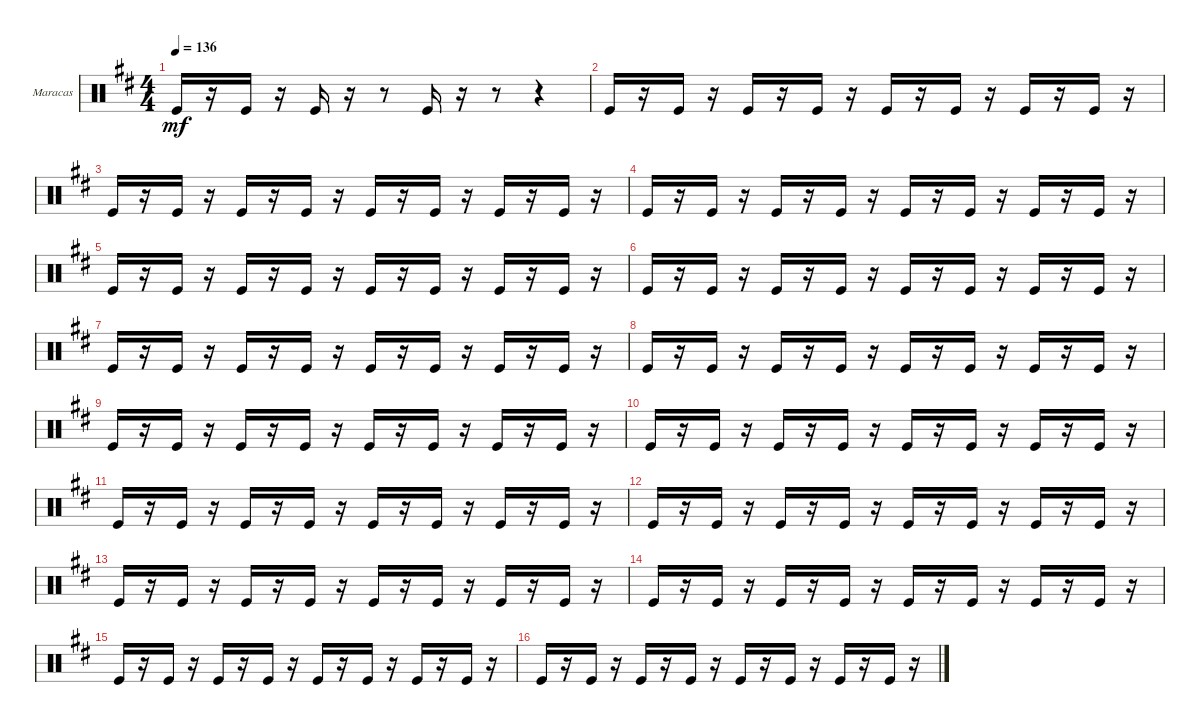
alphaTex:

\defaultSystemsLayout 4
\bracketExtendMode groupsimilarinstruments
\firstSystemTrackNameOrientation horizontal
\otherSystemsTrackNameOrientation horizontal
\track ("Maracas" "Maracas") {instrument percussion}
\staff {score}
\articulation defaults
\ts (4 4)
\tempo 136
\clef neutral
\ks d "Kick (hit)".16{dy mf}
r.16 "Kick (hit)".16 r.16 "Kick (hit)".16 r.16 r.8 "Kick (hit)".16 r.16 r.8 r.4 |
"Kick (hit)".16 r.16 "Kick (hit)".16 r.16 "Kick (hit)".16 r.16 "Kick (hit)".16 r.16 "Kick (hit)".16 r.16 "Kick (hit)".16 r.16 "Kick (hit)".16 r.16 "Kick (hit)".16 r.16 |
"Kick (hit)".16 r.16 "Kick (hit)".16 r.16 "Kick (hit)".16 r.16 "Kick (hit)".16 r.16 "Kick (hit)".16 r.16 "Kick (hit)".16 r.16 "Kick (hit)".16 r.16 "Kick (hit)".16 r.16 |
"Kick (hit)".16 r.16 "Kick (hit)".16 r.16 "Kick (hit)".16 r.16 "Kick (hit)".16 r.16 "Kick (hit)".16 r.16 "Kick (hit)".16 r.16 "Kick (hit)".16 r.16 "Kick (hit)".16 r.16 |
"Kick (hit)".16 r.16 "Kick (hit)".16 r.16 "Kick (hit)".16 r.16 "Kick (hit)".16 r.16 "Kick (hit)".16 r.16 "Kick (hit)".16 r.16 "Kick (hit)".16 r.16 "Kick (hit)".16 r.16 |
"Kick (hit)".16 r.16 "Kick (hit)".16 r.16 "Kick (hit)".16 r.16 "Kick (hit)".16 r.16 "Kick (hit)".16 r.16 "Kick (hit)".16 r.16 "Kick (hit)".16 r.16 "Kick (hit)".16 r.16 |
"Kick (hit)".16 r.16 "Kick (hit)".16 r.16 "Kick (hit)".16 r.16 "Kick (hit)".16 r.16 "Kick (hit)".16 r.16 "Kick (hit)".16 r.16 "Kick (hit)".16 r.16 "Kick (hit)".16 r.16 |
"Kick (hit)".16 r.16 "Kick (hit)".16 r.16 "Kick (hit)".16 r.16 "Kick (hit)".16 r.16 "Kick (hit)".16 r.16 "Kick (hit)".16 r.16 "Kick (hit)".16 r.16 "Kick (hit)".16 r.16 |
"Kick (hit)".16 r.16 "Kick (hit)".16 r.16 "Kick (hit)".16 r.16 "Kick (hit)".16 r.16 "Kick (hit)".16 r.16 "Kick (hit)".16 r.16 "Kick (hit)".16 r.16 "Kick (hit)".16 r.16 |
"Kick (hit)".16 r.16 "Kick (hit)".16 r.16 "Kick (hit)".16 r.16 "Kick (hit)".16 r.16 "Kick (hit)".16 r.16 "Kick (hit)".16 r.16 "Kick (hit)".16 r.16 "Kick (hit)".16 r.16 |
"Kick (hit)".16 r.16 "Kick (hit)".16 r.16 "Kick (hit)".16 r.16 "Kick (hit)".16 r.16 "Kick (hit)".16 r.16 "Kick (hit)".16 r.16 "Kick (hit)".16 r.16 "Kick (hit)".16 r.16 |
"Kick (hit)".16 r.16 "Kick (hit)".16 r.16 "Kick (hit)".16 r.16 "Kick (hit)".16 r.16 "Kick (hit)".16 r.16 "Kick (hit)".16 r.16 "Kick (hit)".16 r.16 "Kick (hit)".16 r.16 |
"Kick (hit)".16 r.16 "Kick (hit)".16 r.16 "Kick (hit)".16 r.16 "Kick (hit)".16 r.16 "Kick (hit)".16 r.16 "Kick (hit)".16 r.16 "Kick (hit)".16 r.16 "Kick (hit)".16 r.16 |
"Kick (hit)".16 r.16 "Kick (hit)".16 r.16 "Kick (hit)".16 r.16 "Kick (hit)".16 r.16 "Kick (hit)".16 r.16 "Kick (hit)".16 r.16 "Kick (hit)".16 r.16 "Kick (hit)".16 r.16 |
"Kick (hit)".16 r.16 "Kick (hit)".16 r.16 "Kick (hit)".16 r.16 "Kick (hit)".16 r.16 "Kick (hit)".16 r.16 "Kick (hit)".16 r.16 "Kick (hit)".16 r.16 "Kick (hit)".16 r.16 |
"Kick (hit)".16 r.16 "Kick (hit)".16 r.16 "Kick (hit)".16 r.16 "Kick (hit)".16 r.16 "Kick (hit)".16 r.16 "Kick (hit)".16 r.16 "Kick (hit)".16 r.16 "Kick (hit)".16 r.16
